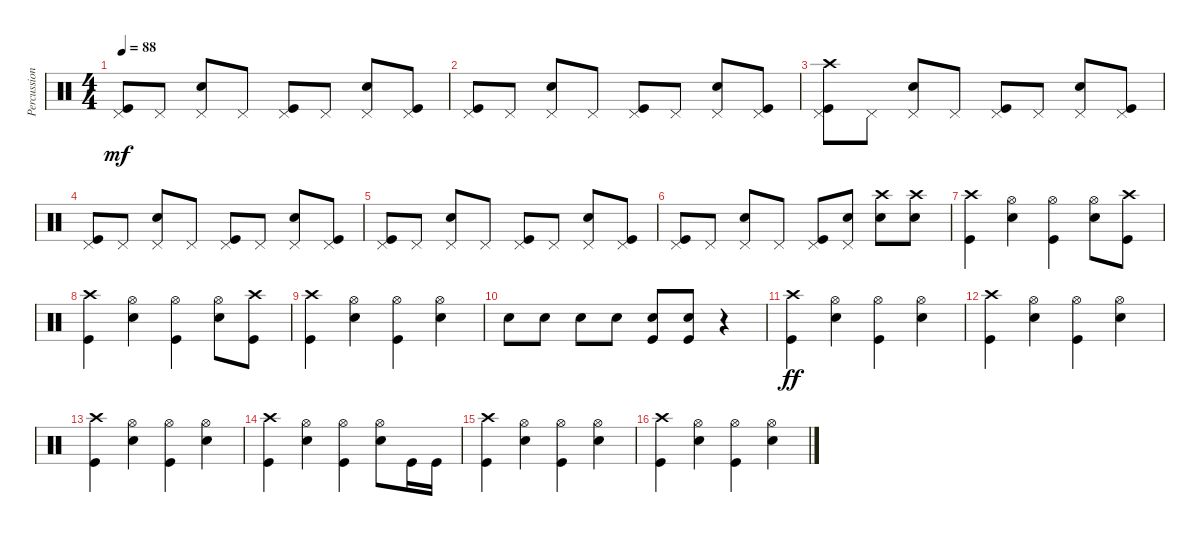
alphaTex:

\track ("Percussion" "Percussion") {instrument percussion}
\staff {score}
\articulation defaults
\ts (4 4)
\tempo 88
\clef neutral
\ks c
("Kick (hit)" "Pedal Hi-Hat (hit)").8{dy mf} "Pedal Hi-Hat (hit)".8 ("Snare (hit) 2" "Pedal Hi-Hat (hit)").8 "Pedal Hi-Hat (hit)".8 ("Kick (hit)" "Pedal Hi-Hat (hit)").8 "Pedal Hi-Hat (hit)".8 ("Snare (hit) 2" "Pedal Hi-Hat (hit)").8 ("Kick (hit)" "Pedal Hi-Hat (hit)").8 |
("Kick (hit)" "Pedal Hi-Hat (hit)").8 "Pedal Hi-Hat (hit)".8 ("Snare (hit) 2" "Pedal Hi-Hat (hit)").8 "Pedal Hi-Hat (hit)".8 ("Kick (hit)" "Pedal Hi-Hat (hit)").8 "Pedal Hi-Hat (hit)".8 ("Snare (hit) 2" "Pedal Hi-Hat (hit)").8 ("Kick (hit)" "Pedal Hi-Hat (hit)").8 |
("Kick (hit)" "Crash high (hit)" "Pedal Hi-Hat (hit)").8 "Pedal Hi-Hat (hit)".8 ("Snare (hit) 2" "Pedal Hi-Hat (hit)").8 "Pedal Hi-Hat (hit)".8 ("Kick (hit)" "Pedal Hi-Hat (hit)").8 "Pedal Hi-Hat (hit)".8 ("Snare (hit) 2" "Pedal Hi-Hat (hit)").8 ("Kick (hit)" "Pedal Hi-Hat (hit)").8 |
("Kick (hit)" "Pedal Hi-Hat (hit)").8 "Pedal Hi-Hat (hit)".8 ("Snare (hit) 2" "Pedal Hi-Hat (hit)").8 "Pedal Hi-Hat (hit)".8 ("Kick (hit)" "Pedal Hi-Hat (hit)").8 "Pedal Hi-Hat (hit)".8 ("Snare (hit) 2" "Pedal Hi-Hat (hit)").8 ("Kick (hit)" "Pedal Hi-Hat (hit)").8 |
("Kick (hit)" "Pedal Hi-Hat (hit)").8 "Pedal Hi-Hat (hit)".8 ("Snare (hit) 2" "Pedal Hi-Hat (hit)").8 "Pedal Hi-Hat (hit)".8 ("Kick (hit)" "Pedal Hi-Hat (hit)").8 "Pedal Hi-Hat (hit)".8 ("Snare (hit) 2" "Pedal Hi-Hat (hit)").8 ("Kick (hit)" "Pedal Hi-Hat (hit)").8 |
("Kick (hit)" "Pedal Hi-Hat (hit)").8 "Pedal Hi-Hat (hit)".8 ("Snare (hit) 2" "Pedal Hi-Hat (hit)").8 "Pedal Hi-Hat (hit)".8 ("Kick (hit)" "Pedal Hi-Hat (hit)").8 ("Snare (hit) 2" "Pedal Hi-Hat (hit)").8 ("Snare (hit) 2" "Crash high (hit)").8 ("Snare (hit) 2" "Crash high (hit)").8 |
("Kick (hit)" "Crash high (hit)").4 ("Snare (hit) 2" "Hi-Hat (open)").4 ("Kick (hit)" "Hi-Hat (open)").4 ("Snare (hit) 2" "Hi-Hat (open)").8 ("Kick (hit)" "Crash high (hit)").8 |
("Kick (hit)" "Crash high (hit)").4 ("Snare (hit) 2" "Hi-Hat (open)").4 ("Kick (hit)" "Hi-Hat (open)").4 ("Snare (hit) 2" "Hi-Hat (open)").8 ("Kick (hit)" "Crash high (hit)").8 |
("Kick (hit)" "Crash high (hit)").4 ("Snare (hit) 2" "Hi-Hat (open)").4 ("Kick (hit)" "Hi-Hat (open)").4 ("Snare (hit) 2" "Hi-Hat (open)").4 |
"Snare (hit) 2".8 "Snare (hit) 2".8 "Snare (hit) 2".8 "Snare (hit) 2".8 ("Snare (hit) 2" "Kick (hit)").8 ("Snare (hit) 2" "Kick (hit)").8 r.4 |
("Kick (hit)" "Crash high (hit)").4{dy ff} ("Snare (hit) 2" "Hi-Hat (open)").4 ("Kick (hit)" "Hi-Hat (open)").4 ("Snare (hit) 2" "Hi-Hat (open)").4 |
("Kick (hit)" "Crash high (hit)").4 ("Snare (hit) 2" "Hi-Hat (open)").4 ("Kick (hit)" "Hi-Hat (open)").4 ("Snare (hit) 2" "Hi-Hat (open)").4 |
("Kick (hit)" "Crash high (hit)").4 ("Snare (hit) 2" "Hi-Hat (open)").4 ("Kick (hit)" "Hi-Hat (open)").4 ("Snare (hit) 2" "Hi-Hat (open)").4 |
("Kick (hit)" "Crash high (hit)").4 ("Snare (hit) 2" "Hi-Hat (open)").4 ("Kick (hit)" "Hi-Hat (open)").4 ("Snare (hit) 2" "Hi-Hat (open)").8 "Kick (hit)".16 "Kick (hit)".16 |
("Kick (hit)" "Crash high (hit)").4 ("Snare (hit) 2" "Hi-Hat (open)").4 ("Kick (hit)" "Hi-Hat (open)").4 ("Snare (hit) 2" "Hi-Hat (open)").4 |
("Kick (hit)" "Crash high (hit)").4 ("Snare (hit) 2" "Hi-Hat (open)").4 ("Kick (hit)" "Hi-Hat (open)").4 ("Snare (hit) 2" "Hi-Hat (open)").4
